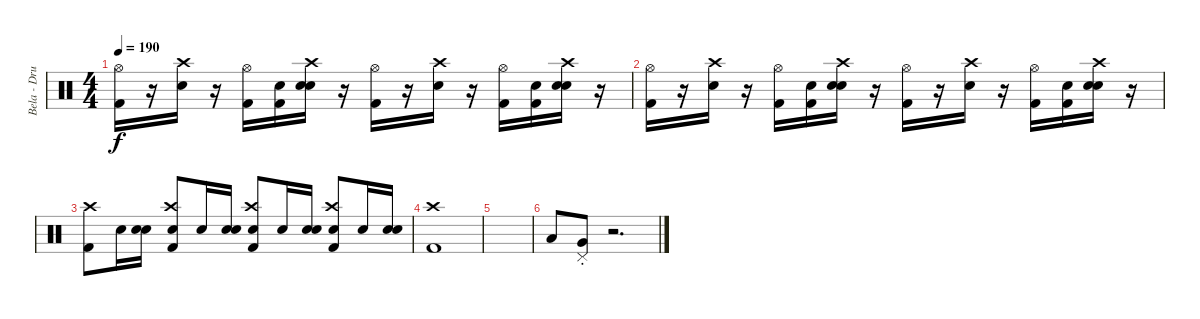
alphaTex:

\track ("Bela - Drums" "Bela - Dru") {instrument percussion}
\staff {score}
\articulation defaults
\ts (4 4)
\tempo 190
\clef neutral
\ks c
("Hi-Hat (open)" "Kick (hit) 2").16{dy f} r.16 ("Crash high (hit)" "Electric Snare (hit)").16 r.16 ("Hi-Hat (open)" "Kick (hit) 2").16 ("Snare (hit)" "Kick (hit) 2").16 ("Snare (hit)" "Crash high (hit)" "Electric Snare (hit)").16 r.16 ("Hi-Hat (open)" "Kick (hit) 2").16 r.16 ("Electric Snare (hit)" "Crash high (hit)").16 r.16 ("Hi-Hat (open)" "Kick (hit) 2").16 ("Snare (hit)" "Kick (hit) 2").16 ("Snare (hit)" "Crash high (hit)" "Electric Snare (hit)").16 r.16 |
("Hi-Hat (open)" "Kick (hit) 2").16 r.16 ("Crash high (hit)" "Electric Snare (hit)").16 r.16 ("Hi-Hat (open)" "Kick (hit) 2").16 ("Snare (hit)" "Kick (hit) 2").16 ("Snare (hit)" "Crash high (hit)" "Electric Snare (hit)").16 r.16 ("Hi-Hat (open)" "Kick (hit) 2").16 r.16 ("Electric Snare (hit)" "Crash high (hit)").16 r.16 ("Hi-Hat (open)" "Kick (hit) 2").16 ("Snare (hit)" "Kick (hit) 2").16 ("Snare (hit)" "Crash high (hit)" "Electric Snare (hit)").16 r.16 |
("Crash high (hit)" "Kick (hit) 2").8 "Electric Snare (hit)".16 ("Snare (hit)" "Electric Snare (hit)").16 ("Snare (hit)" "Crash high (hit)" "Kick (hit) 2").8 "Electric Snare (hit)".16 ("Snare (hit)" "Electric Snare (hit)").16 ("Snare (hit)" "Crash high (hit)" "Kick (hit) 2").8 "Electric Snare (hit)".16 ("Snare (hit)" "Electric Snare (hit)").16 ("Snare (hit)" "Crash high (hit)" "Kick (hit) 2").8 "Electric Snare (hit)".16 ("Snare (hit)" "Electric Snare (hit)").16 |
("Crash high (hit)" "Kick (hit) 2").1 |
|
"Low Floor Tom (hit)".8 ("Pedal Hi-Hat (hit)"{st} "Very Low Tom (hit)").8 r.2{d}
